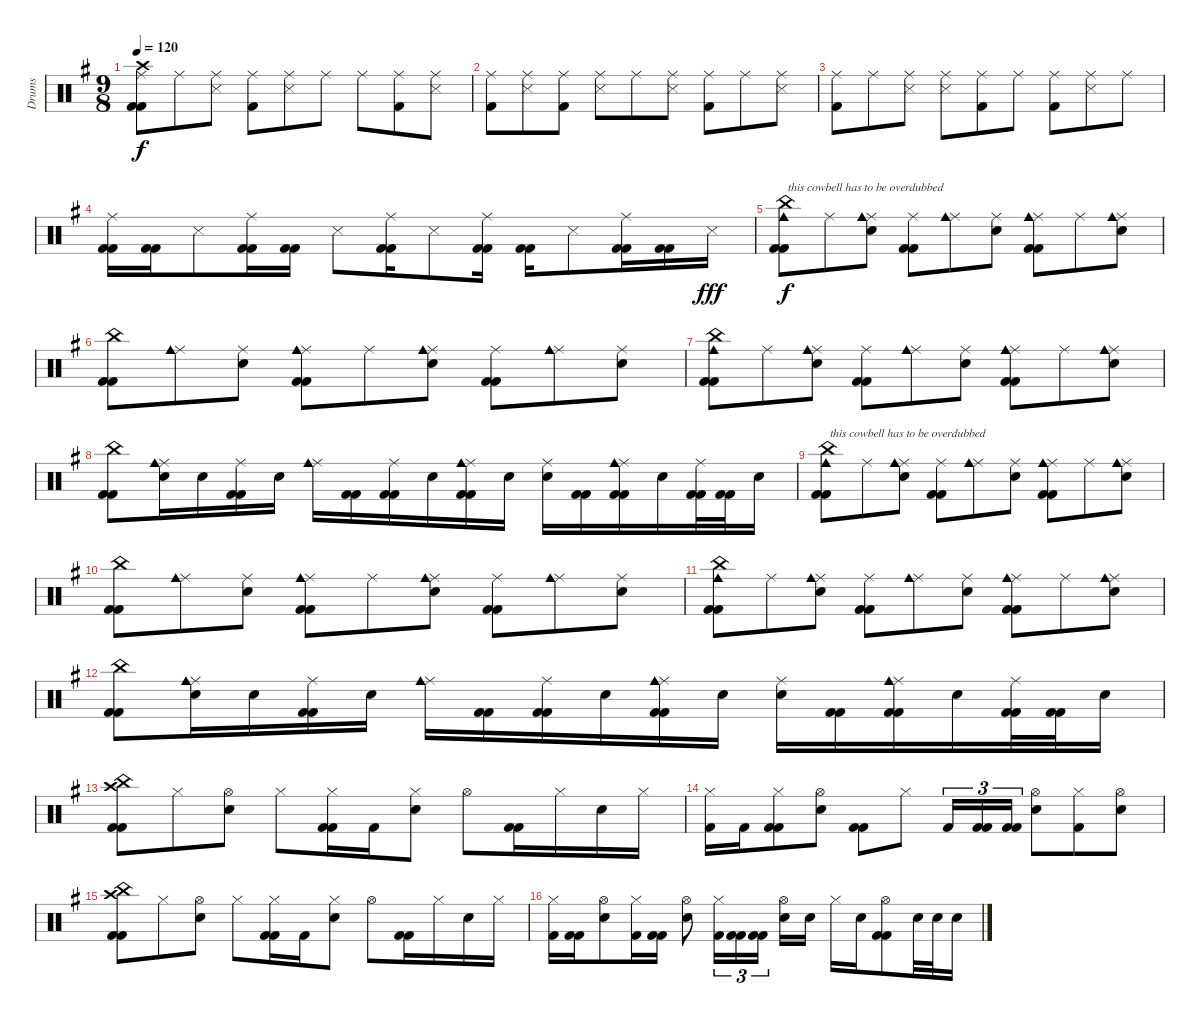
\track ("Drums" "Drums") {instrument percussion}
\staff {score}
\articulation defaults
\ts (9 8)
\tempo 120
\clef neutral
\ks g
("Ride (middle)" "Crash high (hit)" "Kick (hit) 2" "Kick (hit) 2").8{dy f} "Ride (middle)".8 ("Ride (middle)" "Snare (side stick) 3").8 ("Ride (middle)" "Kick (hit) 2").8 ("Ride (middle)" "Snare (side stick) 3").8 "Ride (middle)".8 "Ride (middle)".8 ("Ride (middle)" "Kick (hit) 2").8 ("Ride (middle)" "Snare (side stick) 3").8 |
("Ride (middle)" "Kick (hit) 2").8 ("Ride (middle)" "Snare (side stick) 3").8 ("Ride (middle)" "Kick (hit) 2").8 ("Ride (middle)" "Snare (side stick) 3").8 "Ride (middle)".8 ("Ride (middle)" "Snare (side stick) 3").8 ("Ride (middle)" "Kick (hit) 2").8 "Ride (middle)".8 ("Ride (middle)" "Snare (side stick) 3").8 |
("Ride (middle)" "Kick (hit) 2").8 "Ride (middle)".8 ("Ride (middle)" "Snare (side stick) 3").8 ("Ride (middle)" "Snare (side stick) 3").8 ("Ride (middle)" "Kick (hit) 2").8 "Ride (middle)".8 ("Ride (middle)" "Kick (hit) 2").8 ("Ride (middle)" "Snare (side stick) 3").8 "Ride (middle)".8 |
("Ride (middle)" "Kick (hit) 2" "Kick (hit) 2").16 ("Kick (hit) 2" "Kick (hit) 2").16 "Snare (side stick) 3".8 ("Ride (middle)" "Kick (hit) 2" "Kick (hit) 2").16 ("Kick (hit) 2" "Kick (hit) 2").16 "Snare (side stick) 3".8 ("Ride (middle)" "Kick (hit) 2" "Kick (hit) 2").16 "Snare (side stick) 3".8 ("Ride (middle)" "Kick (hit) 2" "Kick (hit) 2").16 ("Kick (hit) 2" "Kick (hit) 2").16 "Snare (side stick) 3".8 ("Ride (middle)" "Kick (hit) 2" "Kick (hit) 2").16 ("Kick (hit) 2" "Kick (hit) 2").16 "Snare (side stick) 3".16{dy fff} |
("China (hit)" "Cowbell medium (hit)" "Kick (hit) 2" "Kick (hit) 2").8{txt "this cowbell has to be overdubbed" dy f} "Ride (middle)".8 ("Ride (middle)" "Cowbell medium (hit)" "Electric Snare (hit)").8 ("Ride (middle)" "Kick (hit) 2" "Kick (hit) 2").8 ("Ride (middle)" "Cowbell medium (hit)").8 ("Ride (middle)" "Electric Snare (hit)").8 ("Ride (middle)" "Cowbell medium (hit)" "Kick (hit) 2" "Kick (hit) 2").8 "Ride (middle)".8 ("Ride (middle)" "Cowbell medium (hit)" "Electric Snare (hit)").8 |
("China (hit)" "Kick (hit) 2" "Kick (hit) 2").8 ("Ride (middle)" "Cowbell medium (hit)").8 ("Ride (middle)" "Electric Snare (hit)").8 ("Ride (middle)" "Cowbell medium (hit)" "Kick (hit) 2" "Kick (hit) 2").8 "Ride (middle)".8 ("Ride (middle)" "Cowbell medium (hit)" "Electric Snare (hit)").8 ("Ride (middle)" "Kick (hit) 2" "Kick (hit) 2").8 ("Ride (middle)" "Cowbell medium (hit)").8 ("Ride (middle)" "Electric Snare (hit)").8 |
("China (hit)" "Cowbell medium (hit)" "Kick (hit) 2" "Kick (hit) 2").8 "Ride (middle)".8 ("Ride (middle)" "Cowbell medium (hit)" "Electric Snare (hit)").8 ("Ride (middle)" "Kick (hit) 2" "Kick (hit) 2").8 ("Ride (middle)" "Cowbell medium (hit)").8 ("Ride (middle)" "Electric Snare (hit)").8 ("Ride (middle)" "Cowbell medium (hit)" "Kick (hit) 2" "Kick (hit) 2").8 "Ride (middle)".8 ("Ride (middle)" "Cowbell medium (hit)" "Electric Snare (hit)").8 |
("China (hit)" "Kick (hit) 2" "Kick (hit) 2").8 ("Ride (middle)" "Electric Snare (hit)" "Cowbell medium (hit)").16 "Electric Snare (hit)".16 ("Ride (middle)" "Kick (hit) 2" "Kick (hit) 2").16 "Electric Snare (hit)".16 ("Ride (middle)" "Cowbell medium (hit)").16 ("Kick (hit) 2" "Kick (hit) 2").16 ("Ride (middle)" "Kick (hit) 2" "Kick (hit) 2").16 "Electric Snare (hit)".16 ("Ride (middle)" "Cowbell medium (hit)" "Kick (hit) 2" "Kick (hit) 2").16 "Electric Snare (hit)".16 ("Ride (middle)" "Electric Snare (hit)").16 ("Kick (hit) 2" "Kick (hit) 2").16 ("Ride (middle)" "Cowbell medium (hit)" "Kick (hit) 2" "Kick (hit) 2").16 "Electric Snare (hit)".16 ("Ride (middle)" "Kick (hit) 2" "Kick (hit) 2").32 ("Kick (hit) 2" "Kick (hit) 2").32 "Electric Snare (hit)".16 |
("China (hit)" "Cowbell medium (hit)" "Kick (hit) 2" "Kick (hit) 2").8{txt "this cowbell has to be overdubbed"} "Ride (middle)".8 ("Ride (middle)" "Cowbell medium (hit)" "Electric Snare (hit)").8 ("Ride (middle)" "Kick (hit) 2" "Kick (hit) 2").8 ("Ride (middle)" "Cowbell medium (hit)").8 ("Ride (middle)" "Electric Snare (hit)").8 ("Ride (middle)" "Cowbell medium (hit)" "Kick (hit) 2" "Kick (hit) 2").8 "Ride (middle)".8 ("Ride (middle)" "Cowbell medium (hit)" "Electric Snare (hit)").8 |
("China (hit)" "Kick (hit) 2" "Kick (hit) 2").8 ("Ride (middle)" "Cowbell medium (hit)").8 ("Ride (middle)" "Electric Snare (hit)").8 ("Ride (middle)" "Cowbell medium (hit)" "Kick (hit) 2" "Kick (hit) 2").8 "Ride (middle)".8 ("Ride (middle)" "Cowbell medium (hit)" "Electric Snare (hit)").8 ("Ride (middle)" "Kick (hit) 2" "Kick (hit) 2").8 ("Ride (middle)" "Cowbell medium (hit)").8 ("Ride (middle)" "Electric Snare (hit)").8 |
("China (hit)" "Cowbell medium (hit)" "Kick (hit) 2" "Kick (hit) 2").8 "Ride (middle)".8 ("Ride (middle)" "Cowbell medium (hit)" "Electric Snare (hit)").8 ("Ride (middle)" "Kick (hit) 2" "Kick (hit) 2").8 ("Ride (middle)" "Cowbell medium (hit)").8 ("Ride (middle)" "Electric Snare (hit)").8 ("Ride (middle)" "Cowbell medium (hit)" "Kick (hit) 2" "Kick (hit) 2").8 "Ride (middle)".8 ("Ride (middle)" "Cowbell medium (hit)" "Electric Snare (hit)").8 |
("China (hit)" "Kick (hit) 2" "Kick (hit) 2").8{volume 16} ("Ride (middle)" "Electric Snare (hit)" "Cowbell medium (hit)").16 "Electric Snare (hit)".16 ("Ride (middle)" "Kick (hit) 2" "Kick (hit) 2").16 "Electric Snare (hit)".16 ("Ride (middle)" "Cowbell medium (hit)").16 ("Kick (hit) 2" "Kick (hit) 2").16 ("Ride (middle)" "Kick (hit) 2" "Kick (hit) 2").16 "Electric Snare (hit)".16 ("Ride (middle)" "Cowbell medium (hit)" "Kick (hit) 2" "Kick (hit) 2").16 "Electric Snare (hit)".16 ("Ride (middle)" "Electric Snare (hit)").16 ("Kick (hit) 2" "Kick (hit) 2").16 ("Ride (middle)" "Cowbell medium (hit)" "Kick (hit) 2" "Kick (hit) 2").16 "Electric Snare (hit)".16 ("Ride (middle)" "Kick (hit) 2" "Kick (hit) 2").32 ("Kick (hit) 2" "Kick (hit) 2").32 "Electric Snare (hit)".16 |
("China (hit)" "Crash high (hit)" "Kick (hit) 2" "Kick (hit) 2").8{volume 13} "Hi-Hat (closed)".8 ("Hi-Hat (open)" "Snare (hit) 2").8 "Hi-Hat (closed)".8 ("Hi-Hat (closed)" "Kick (hit) 2" "Kick (hit) 2").16 "Kick (hit) 2".16 ("Hi-Hat (closed)" "Snare (hit) 2").8 "Hi-Hat (open)".8 ("Kick (hit) 2" "Kick (hit) 2").16 "Hi-Hat (closed)".16 "Snare (hit) 2".16 "Hi-Hat (closed)".16 |
("Hi-Hat (closed)" "Kick (hit) 2").16 "Kick (hit) 2".16 ("Hi-Hat (closed)" "Kick (hit) 2" "Kick (hit) 2").8 ("Hi-Hat (open)" "Snare (hit) 2").8 ("Kick (hit) 2" "Kick (hit) 2").8 "Hi-Hat (closed)".8 "Kick (hit) 2".16{tu (3 2)} ("Kick (hit) 2" "Kick (hit) 2").16{tu (3 2)} ("Kick (hit) 2" "Kick (hit) 2").16{tu (3 2)} ("Hi-Hat (open)" "Snare (hit) 2").8 ("Hi-Hat (closed)" "Kick (hit) 2").8 ("Hi-Hat (open)" "Snare (hit) 2").8 |
("China (hit)" "Crash high (hit)" "Kick (hit) 2" "Kick (hit) 2").8 "Hi-Hat (closed)".8 ("Hi-Hat (open)" "Snare (hit) 2").8 "Hi-Hat (closed)".8 ("Hi-Hat (closed)" "Kick (hit) 2" "Kick (hit) 2").16 "Kick (hit) 2".16 ("Hi-Hat (closed)" "Snare (hit) 2").8 "Hi-Hat (open)".8 ("Kick (hit) 2" "Kick (hit) 2").16 "Hi-Hat (closed)".16 "Snare (hit) 2".16 "Hi-Hat (closed)".16 |
("Hi-Hat (closed)" "Kick (hit) 2").16 ("Kick (hit) 2" "Kick (hit) 2").16 ("Hi-Hat (open)" "Snare (hit) 2").8 ("Hi-Hat (closed)" "Kick (hit) 2").16 ("Kick (hit) 2" "Kick (hit) 2").16 ("Hi-Hat (open)" "Snare (hit) 2").8 ("Hi-Hat (closed)" "Kick (hit) 2").16{tu (3 2)} ("Kick (hit) 2" "Kick (hit) 2").16{tu (3 2)} ("Kick (hit) 2" "Kick (hit) 2").16{tu (3 2)} ("Hi-Hat (open)" "Snare (hit) 2").16 "Snare (hit) 2".16 "Hi-Hat (closed)".16 "Snare (hit) 2".16 ("Hi-Hat (open)" "Kick (hit) 2" "Kick (hit) 2").8 "Snare (hit) 2".32 "Snare (hit) 2".32 "Snare (hit) 2".16
